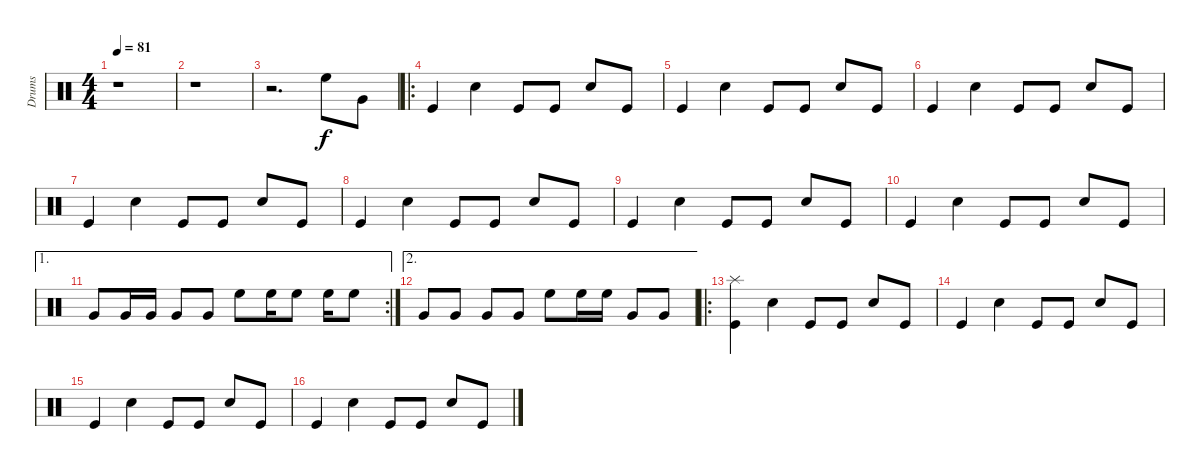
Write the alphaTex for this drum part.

\track ("Drums" "Drums") {instrument percussion}
\staff {score}
\articulation defaults
\ts (4 4)
\tempo 81
\clef neutral
\ks c
r.1{dy f} |
r.1 |
r.2{d} "High Floor Tom (hit)".8 "Very Low Tom (hit)".8 |
\ro "Kick (hit)".4 "Snare (hit) 2".4 "Kick (hit)".8 "Kick (hit)".8 "Snare (hit) 2".8 "Kick (hit)".8
|
"Kick (hit)".4 "Snare (hit) 2".4 "Kick (hit)".8 "Kick (hit)".8 "Snare (hit) 2".8 "Kick (hit)".8 |
"Kick (hit)".4 "Snare (hit) 2".4 "Kick (hit)".8 "Kick (hit)".8 "Snare (hit) 2".8 "Kick (hit)".8 |
"Kick (hit)".4 "Snare (hit) 2".4 "Kick (hit)".8 "Kick (hit)".8 "Snare (hit) 2".8 "Kick (hit)".8 |
"Kick (hit)".4 "Snare (hit) 2".4 "Kick (hit)".8 "Kick (hit)".8 "Snare (hit) 2".8 "Kick (hit)".8 |
"Kick (hit)".4 "Snare (hit) 2".4 "Kick (hit)".8 "Kick (hit)".8 "Snare (hit) 2".8 "Kick (hit)".8 |
"Kick (hit)".4 "Snare (hit) 2".4 "Kick (hit)".8 "Kick (hit)".8 "Snare (hit) 2".8 "Kick (hit)".8 |
\ae 1
\rc 2 "Very Low Tom (hit)".8 "Very Low Tom (hit)".16 "Very Low Tom (hit)".16 "Very Low Tom (hit)".8 "Very Low Tom (hit)".8 "High Floor Tom (hit)".8 "High Floor Tom (hit)".16 "High Floor Tom (hit)".8 "High Floor Tom (hit)".16 "High Floor Tom (hit)".8
|
\ae 2 "Very Low Tom (hit)".8 "Very Low Tom (hit)".8 "Very Low Tom (hit)".8 "Very Low Tom (hit)".8 "High Floor Tom (hit)".8 "High Floor Tom (hit)".16 "High Floor Tom (hit)".16 "Very Low Tom (hit)".8 "Very Low Tom (hit)".8
|
\ro
("Splash (hit)" "Kick (hit)").4 "Snare (hit) 2".4 "Kick (hit)".8 "Kick (hit)".8 "Snare (hit) 2".8 "Kick (hit)".8 |
"Kick (hit)".4 "Snare (hit) 2".4 "Kick (hit)".8 "Kick (hit)".8 "Snare (hit) 2".8 "Kick (hit)".8 |
"Kick (hit)".4 "Snare (hit) 2".4 "Kick (hit)".8 "Kick (hit)".8 "Snare (hit) 2".8 "Kick (hit)".8 |
"Kick (hit)".4 "Snare (hit) 2".4 "Kick (hit)".8 "Kick (hit)".8 "Snare (hit) 2".8 "Kick (hit)".8
